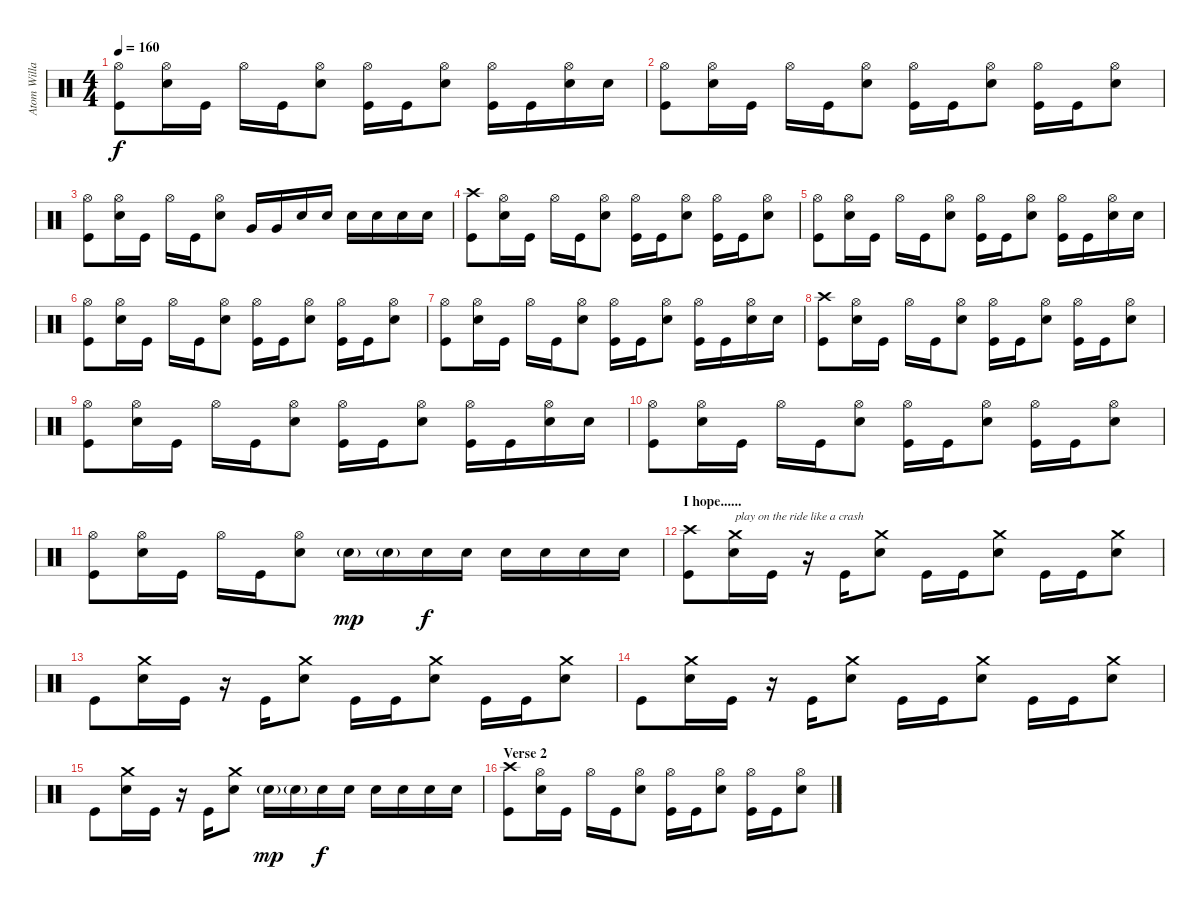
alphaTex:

\track ("Atom Willard - Drums" "Atom Willa") {instrument percussion}
\staff {score}
\articulation defaults
\ts (4 4)
\tempo 160
\clef neutral
\ks c
("Hi-Hat (open)" "Kick (hit)").8{dy f} ("Hi-Hat (open)" "Electric Snare (hit)").16 "Kick (hit)".16 "Hi-Hat (open)".16 "Kick (hit)".16 ("Hi-Hat (open)" "Electric Snare (hit)").8 ("Hi-Hat (open)" "Kick (hit)").16 "Kick (hit)".16 ("Hi-Hat (open)" "Electric Snare (hit)").8 ("Hi-Hat (open)" "Kick (hit)").16 "Kick (hit)".16 ("Hi-Hat (open)" "Electric Snare (hit)").16 "Electric Snare (hit)".16 |
("Hi-Hat (open)" "Kick (hit)").8 ("Hi-Hat (open)" "Electric Snare (hit)").16 "Kick (hit)".16 "Hi-Hat (open)".16 "Kick (hit)".16 ("Hi-Hat (open)" "Electric Snare (hit)").8 ("Hi-Hat (open)" "Kick (hit)").16 "Kick (hit)".16 ("Hi-Hat (open)" "Electric Snare (hit)").8 ("Hi-Hat (open)" "Kick (hit)").16 "Kick (hit)".16 ("Hi-Hat (open)" "Electric Snare (hit)").8 |
("Hi-Hat (open)" "Kick (hit)").8 ("Hi-Hat (open)" "Electric Snare (hit)").16 "Kick (hit)".16 "Hi-Hat (open)".16 "Kick (hit)".16 ("Hi-Hat (open)" "Electric Snare (hit)").8 "Very Low Tom (hit)".16 "Very Low Tom (hit)".16 "Electric Snare (hit)".16 "Electric Snare (hit)".16 "Electric Snare (hit)".16 "Electric Snare (hit)".16 "Electric Snare (hit)".16 "Electric Snare (hit)".16 |
("Crash high (hit)" "Kick (hit)").8 ("Hi-Hat (open)" "Electric Snare (hit)").16 "Kick (hit)".16 "Hi-Hat (open)".16 "Kick (hit)".16 ("Hi-Hat (open)" "Electric Snare (hit)").8 ("Hi-Hat (open)" "Kick (hit)").16 "Kick (hit)".16 ("Hi-Hat (open)" "Electric Snare (hit)").8 ("Hi-Hat (open)" "Kick (hit)").16 "Kick (hit)".16 ("Hi-Hat (open)" "Electric Snare (hit)").8 |
("Hi-Hat (open)" "Kick (hit)").8 ("Hi-Hat (open)" "Electric Snare (hit)").16 "Kick (hit)".16 "Hi-Hat (open)".16 "Kick (hit)".16 ("Hi-Hat (open)" "Electric Snare (hit)").8 ("Hi-Hat (open)" "Kick (hit)").16 "Kick (hit)".16 ("Hi-Hat (open)" "Electric Snare (hit)").8 ("Hi-Hat (open)" "Kick (hit)").16 "Kick (hit)".16 ("Hi-Hat (open)" "Electric Snare (hit)").16 "Electric Snare (hit)".16 |
("Hi-Hat (open)" "Kick (hit)").8 ("Hi-Hat (open)" "Electric Snare (hit)").16 "Kick (hit)".16 "Hi-Hat (open)".16 "Kick (hit)".16 ("Hi-Hat (open)" "Electric Snare (hit)").8 ("Hi-Hat (open)" "Kick (hit)").16 "Kick (hit)".16 ("Hi-Hat (open)" "Electric Snare (hit)").8 ("Hi-Hat (open)" "Kick (hit)").16 "Kick (hit)".16 ("Hi-Hat (open)" "Electric Snare (hit)").8 |
("Hi-Hat (open)" "Kick (hit)").8 ("Hi-Hat (open)" "Electric Snare (hit)").16 "Kick (hit)".16 "Hi-Hat (open)".16 "Kick (hit)".16 ("Hi-Hat (open)" "Electric Snare (hit)").8 ("Hi-Hat (open)" "Kick (hit)").16 "Kick (hit)".16 ("Hi-Hat (open)" "Electric Snare (hit)").8 ("Hi-Hat (open)" "Kick (hit)").16 "Kick (hit)".16 ("Hi-Hat (open)" "Electric Snare (hit)").16 "Electric Snare (hit)".16 |
("Crash high (hit)" "Kick (hit)").8 ("Hi-Hat (open)" "Electric Snare (hit)").16 "Kick (hit)".16 "Hi-Hat (open)".16 "Kick (hit)".16 ("Hi-Hat (open)" "Electric Snare (hit)").8 ("Hi-Hat (open)" "Kick (hit)").16 "Kick (hit)".16 ("Hi-Hat (open)" "Electric Snare (hit)").8 ("Hi-Hat (open)" "Kick (hit)").16 "Kick (hit)".16 ("Hi-Hat (open)" "Electric Snare (hit)").8 |
("Hi-Hat (open)" "Kick (hit)").8 ("Hi-Hat (open)" "Electric Snare (hit)").16 "Kick (hit)".16 "Hi-Hat (open)".16 "Kick (hit)".16 ("Hi-Hat (open)" "Electric Snare (hit)").8 ("Hi-Hat (open)" "Kick (hit)").16 "Kick (hit)".16 ("Hi-Hat (open)" "Electric Snare (hit)").8 ("Hi-Hat (open)" "Kick (hit)").16 "Kick (hit)".16 ("Hi-Hat (open)" "Electric Snare (hit)").16 "Electric Snare (hit)".16 |
("Hi-Hat (open)" "Kick (hit)").8 ("Hi-Hat (open)" "Electric Snare (hit)").16 "Kick (hit)".16 "Hi-Hat (open)".16 "Kick (hit)".16 ("Hi-Hat (open)" "Electric Snare (hit)").8 ("Hi-Hat (open)" "Kick (hit)").16 "Kick (hit)".16 ("Hi-Hat (open)" "Electric Snare (hit)").8 ("Hi-Hat (open)" "Kick (hit)").16 "Kick (hit)".16 ("Hi-Hat (open)" "Electric Snare (hit)").8 |
("Hi-Hat (open)" "Kick (hit)").8 ("Hi-Hat (open)" "Electric Snare (hit)").16 "Kick (hit)".16 "Hi-Hat (open)".16 "Kick (hit)".16 ("Hi-Hat (open)" "Electric Snare (hit)").8 "Electric Snare (hit)"{g}.16{dy mp} "Electric Snare (hit)"{g}.16 "Electric Snare (hit)".16{dy f} "Electric Snare (hit)".16 "Electric Snare (hit)".16 "Electric Snare (hit)".16 "Electric Snare (hit)".16 "Electric Snare (hit)".16 |
\section ("" "I hope......")
("Crash high (hit)" "Kick (hit)").8 ("Crash medium (hit)" "Electric Snare (hit)").16{txt "play on the ride like a crash"} "Kick (hit)".16 r.16 "Kick (hit)".16 ("Crash medium (hit)" "Electric Snare (hit)").8 "Kick (hit)".16 "Kick (hit)".16 ("Crash medium (hit)" "Electric Snare (hit)").8 "Kick (hit)".16 "Kick (hit)".16 ("Crash medium (hit)" "Electric Snare (hit)").8 |
"Kick (hit)".8 ("Crash medium (hit)" "Electric Snare (hit)").16 "Kick (hit)".16 r.16 "Kick (hit)".16 ("Crash medium (hit)" "Electric Snare (hit)").8 "Kick (hit)".16 "Kick (hit)".16 ("Crash medium (hit)" "Electric Snare (hit)").8 "Kick (hit)".16 "Kick (hit)".16 ("Crash medium (hit)" "Electric Snare (hit)").8 |
"Kick (hit)".8 ("Crash medium (hit)" "Electric Snare (hit)").16 "Kick (hit)".16 r.16 "Kick (hit)".16 ("Crash medium (hit)" "Electric Snare (hit)").8 "Kick (hit)".16 "Kick (hit)".16 ("Crash medium (hit)" "Electric Snare (hit)").8 "Kick (hit)".16 "Kick (hit)".16 ("Crash medium (hit)" "Electric Snare (hit)").8 |
"Kick (hit)".8 ("Crash medium (hit)" "Electric Snare (hit)").16 "Kick (hit)".16 r.16 "Kick (hit)".16 ("Crash medium (hit)" "Electric Snare (hit)").8 "Electric Snare (hit)"{g}.16{dy mp} "Electric Snare (hit)"{g}.16 "Electric Snare (hit)".16{dy f} "Electric Snare (hit)".16 "Electric Snare (hit)".16 "Electric Snare (hit)".16 "Electric Snare (hit)".16 "Electric Snare (hit)".16 |
\section ("" "Verse 2")
("Crash high (hit)" "Kick (hit)").8 ("Hi-Hat (open)" "Electric Snare (hit)").16 "Kick (hit)".16 "Hi-Hat (open)".16 "Kick (hit)".16 ("Hi-Hat (open)" "Electric Snare (hit)").8 ("Hi-Hat (open)" "Kick (hit)").16 "Kick (hit)".16 ("Hi-Hat (open)" "Electric Snare (hit)").8 ("Hi-Hat (open)" "Kick (hit)").16 "Kick (hit)".16 ("Hi-Hat (open)" "Electric Snare (hit)").8
